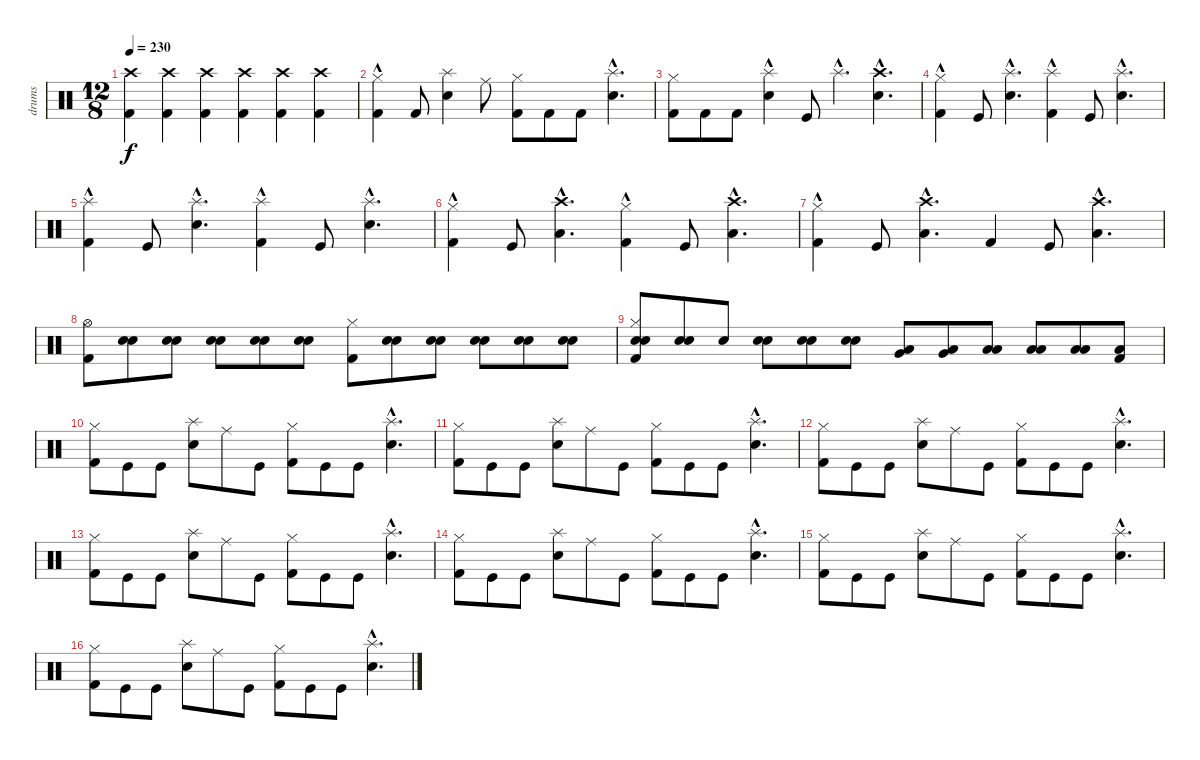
\track ("drums" "drums") {instrument percussion}
\staff {score}
\articulation defaults
\ts (12 8)
\tempo 230
\clef neutral
\ks c
("Crash high (hit)" "Kick (hit) 2").4{dy f} ("Crash high (hit)" "Kick (hit) 2").4 ("Crash high (hit)" "Kick (hit) 2").4 ("Crash high (hit)" "Kick (hit) 2").4 ("Crash high (hit)" "Kick (hit) 2").4 ("Crash high (hit)" "Kick (hit) 2").4 |
("Hi-Hat (closed)"{hac} "Kick (hit) 2").4 "Kick (hit) 2".8 ("Splash (hit)" "Snare (hit) 2").4 "Ride (middle)".8 ("Hi-Hat (closed)" "Kick (hit) 2").8 "Kick (hit) 2".8 "Kick (hit) 2".8 ("Splash (hit)"{hac} "Electric Snare (hit)"{hac}).4{d} |
("Hi-Hat (closed)" "Kick (hit) 2").8 "Kick (hit) 2".8 "Kick (hit) 2".8 ("Splash (hit)"{hac} "Snare (hit) 2").4 "Kick (hit)".8 "Splash (hit)"{hac}.4{d} ("Crash high (hit)"{hac} "Snare (hit) 2"{hac}).4{d} |
("Hi-Hat (closed)"{hac} "Kick (hit) 2").4 "Kick (hit)".8 ("Snare (hit) 2"{hac} "Splash (hit)"{hac}).4{d} ("Kick (hit) 2" "Splash (hit)"{hac}).4 "Kick (hit)".8 ("Snare (hit) 2"{hac} "Splash (hit)"{hac}).4{d} |
("Kick (hit) 2" "Splash (hit)"{hac}).4 "Kick (hit)".8 ("Snare (hit) 2"{hac} "Splash (hit)"{hac}).4{d} ("Kick (hit) 2" "Splash (hit)"{hac}).4 "Kick (hit)".8 ("Snare (hit) 2"{hac} "Splash (hit)"{hac}).4{d} |
("Kick (hit) 2" "Hi-Hat (closed)"{hac}).4 "Kick (hit)".8 ("Crash high (hit)"{hac} "Low Tom (hit)"{hac}).4{d} ("Hi-Hat (closed)"{hac} "Kick (hit) 2").4 "Kick (hit)".8 ("Crash high (hit)"{hac} "Low Tom (hit)"{hac}).4{d} |
("Hi-Hat (closed)"{hac} "Kick (hit) 2").4 "Kick (hit)".8 ("Crash high (hit)"{hac} "Low Tom (hit)"{hac}).4{d} "Kick (hit) 2".4 "Kick (hit)".8 ("Crash high (hit)"{hac} "Low Tom (hit)"{hac}).4{d} |
("Hi-Hat (open)" "Kick (hit) 2").8 ("Electric Snare (hit)" "Electric Snare (hit)").8 ("Electric Snare (hit)" "Electric Snare (hit)").8 ("Electric Snare (hit)" "Electric Snare (hit)").8 ("Electric Snare (hit)" "Electric Snare (hit)").8 ("Electric Snare (hit)" "Electric Snare (hit)").8 ("Hi-Hat (closed)" "Kick (hit) 2").8 ("Electric Snare (hit)" "Snare (hit) 2").8 ("Electric Snare (hit)" "Snare (hit) 2").8 ("Electric Snare (hit)" "Snare (hit) 2").8 ("Electric Snare (hit)" "Snare (hit) 2").8 ("Electric Snare (hit)" "Snare (hit) 2").8 |
("Electric Snare (hit)" "Hi-Hat (closed)" "Snare (hit) 2" "Kick (hit) 2").8 ("Electric Snare (hit)" "Snare (hit) 2").8 "Snare (hit) 2".8 ("Electric Snare (hit)" "Snare (hit) 2").8 ("Electric Snare (hit)" "Snare (hit) 2").8 ("Electric Snare (hit)" "Snare (hit) 2").8 ("Very Low Tom (hit)" "Low Tom (hit)").8 ("Very Low Tom (hit)" "Low Tom (hit)").8 ("Low Floor Tom (hit)" "Low Tom (hit)").8 ("Low Tom (hit)" "Low Floor Tom (hit)").8 ("Low Tom (hit)" "Low Floor Tom (hit)").8 ("Low Tom (hit)" "Kick (hit) 2").8 |
("Hi-Hat (closed)" "Kick (hit) 2").8 "Kick (hit)".8 "Kick (hit)".8 ("Splash (hit)" "Snare (hit) 2").8 "Ride (middle)".8 "Kick (hit)".8 ("Hi-Hat (closed)" "Kick (hit) 2").8 "Kick (hit)".8 "Kick (hit)".8 ("Splash (hit)"{hac} "Snare (hit) 2"{hac}).4{d} |
("Hi-Hat (closed)" "Kick (hit) 2").8 "Kick (hit)".8 "Kick (hit)".8 ("Splash (hit)" "Snare (hit) 2").8 "Ride (middle)".8 "Kick (hit)".8 ("Hi-Hat (closed)" "Kick (hit) 2").8 "Kick (hit)".8 "Kick (hit)".8 ("Splash (hit)"{hac} "Snare (hit) 2"{hac}).4{d} |
("Hi-Hat (closed)" "Kick (hit) 2").8 "Kick (hit)".8 "Kick (hit)".8 ("Splash (hit)" "Snare (hit) 2").8 "Ride (middle)".8 "Kick (hit)".8 ("Hi-Hat (closed)" "Kick (hit) 2").8 "Kick (hit)".8 "Kick (hit)".8 ("Splash (hit)"{hac} "Snare (hit) 2"{hac}).4{d} |
("Hi-Hat (closed)" "Kick (hit) 2").8 "Kick (hit)".8 "Kick (hit)".8 ("Splash (hit)" "Snare (hit) 2").8 "Ride (middle)".8 "Kick (hit)".8 ("Hi-Hat (closed)" "Kick (hit) 2").8 "Kick (hit)".8 "Kick (hit)".8 ("Splash (hit)"{hac} "Snare (hit) 2"{hac}).4{d} |
("Hi-Hat (closed)" "Kick (hit) 2").8 "Kick (hit)".8 "Kick (hit)".8 ("Splash (hit)" "Snare (hit) 2").8 "Ride (middle)".8 "Kick (hit)".8 ("Hi-Hat (closed)" "Kick (hit) 2").8 "Kick (hit)".8 "Kick (hit)".8 ("Splash (hit)"{hac} "Snare (hit) 2"{hac}).4{d} |
("Hi-Hat (closed)" "Kick (hit) 2").8 "Kick (hit)".8 "Kick (hit)".8 ("Splash (hit)" "Snare (hit) 2").8 "Ride (middle)".8 "Kick (hit)".8 ("Hi-Hat (closed)" "Kick (hit) 2").8 "Kick (hit)".8 "Kick (hit)".8 ("Splash (hit)"{hac} "Snare (hit) 2"{hac}).4{d} |
("Hi-Hat (closed)" "Kick (hit) 2").8 "Kick (hit)".8 "Kick (hit)".8 ("Splash (hit)" "Snare (hit) 2").8 "Ride (middle)".8 "Kick (hit)".8 ("Hi-Hat (closed)" "Kick (hit) 2").8 "Kick (hit)".8 "Kick (hit)".8 ("Splash (hit)"{hac} "Snare (hit) 2"{hac}).4{d}
